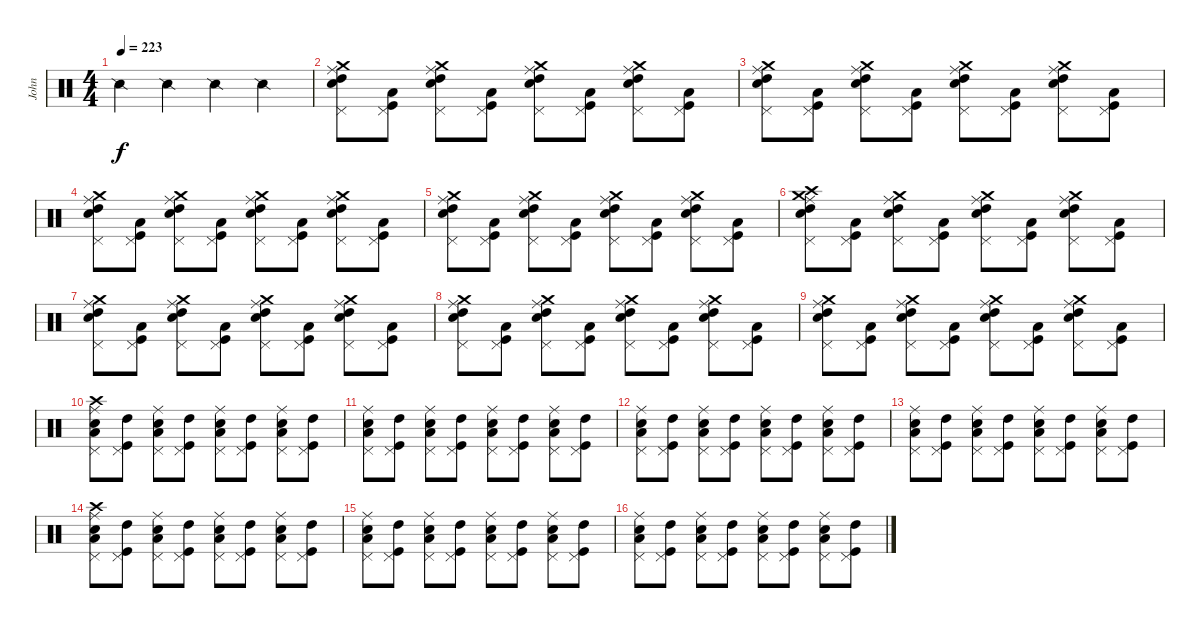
\track ("John" "John") {instrument percussion}
\staff {score}
\articulation defaults
\ts (4 4)
\tempo 223
\clef neutral
\ks c "Snare (side stick) 2".4{dy f} "Snare (side stick) 2".4 "Snare (side stick) 2".4 "Snare (side stick) 2".4
|
("Crash medium (hit)" "Ride (middle)" "Snare (hit) 2" "High Tom (hit)" "Pedal Hi-Hat (hit)").8 ("Kick (hit)" "Low Tom (hit)" "Pedal Hi-Hat (hit)").8 ("Crash medium (hit)" "Ride (middle)" "Snare (hit) 2" "High Tom (hit)" "Pedal Hi-Hat (hit)").8 ("Kick (hit)" "Low Tom (hit)" "Pedal Hi-Hat (hit)").8 ("Crash medium (hit)" "Ride (middle)" "Snare (hit) 2" "High Tom (hit)" "Pedal Hi-Hat (hit)").8 ("Kick (hit)" "Low Tom (hit)" "Pedal Hi-Hat (hit)").8 ("Crash medium (hit)" "Ride (middle)" "Snare (hit) 2" "High Tom (hit)" "Pedal Hi-Hat (hit)").8 ("Kick (hit)" "Low Tom (hit)" "Pedal Hi-Hat (hit)").8 |
("Crash medium (hit)" "Ride (middle)" "Snare (hit) 2" "High Tom (hit)" "Pedal Hi-Hat (hit)").8 ("Kick (hit)" "Low Tom (hit)" "Pedal Hi-Hat (hit)").8 ("Crash medium (hit)" "Ride (middle)" "Snare (hit) 2" "High Tom (hit)" "Pedal Hi-Hat (hit)").8 ("Kick (hit)" "Low Tom (hit)" "Pedal Hi-Hat (hit)").8 ("Crash medium (hit)" "Ride (middle)" "Snare (hit) 2" "High Tom (hit)" "Pedal Hi-Hat (hit)").8 ("Kick (hit)" "Low Tom (hit)" "Pedal Hi-Hat (hit)").8 ("Crash medium (hit)" "Ride (middle)" "Snare (hit) 2" "High Tom (hit)" "Pedal Hi-Hat (hit)").8 ("Kick (hit)" "Low Tom (hit)" "Pedal Hi-Hat (hit)").8 |
("Crash medium (hit)" "Ride (middle)" "Snare (hit) 2" "High Tom (hit)" "Pedal Hi-Hat (hit)").8 ("Kick (hit)" "Low Tom (hit)" "Pedal Hi-Hat (hit)").8 ("Crash medium (hit)" "Ride (middle)" "Snare (hit) 2" "High Tom (hit)" "Pedal Hi-Hat (hit)").8 ("Kick (hit)" "Low Tom (hit)" "Pedal Hi-Hat (hit)").8 ("Crash medium (hit)" "Ride (middle)" "Snare (hit) 2" "High Tom (hit)" "Pedal Hi-Hat (hit)").8 ("Kick (hit)" "Low Tom (hit)" "Pedal Hi-Hat (hit)").8 ("Crash medium (hit)" "Ride (middle)" "Snare (hit) 2" "High Tom (hit)" "Pedal Hi-Hat (hit)").8 ("Kick (hit)" "Low Tom (hit)" "Pedal Hi-Hat (hit)").8 |
("Crash medium (hit)" "Ride (middle)" "Snare (hit) 2" "High Tom (hit)" "Pedal Hi-Hat (hit)").8 ("Kick (hit)" "Low Tom (hit)" "Pedal Hi-Hat (hit)").8 ("Crash medium (hit)" "Ride (middle)" "Snare (hit) 2" "High Tom (hit)" "Pedal Hi-Hat (hit)").8 ("Kick (hit)" "Low Tom (hit)" "Pedal Hi-Hat (hit)").8 ("Crash medium (hit)" "Ride (middle)" "Snare (hit) 2" "High Tom (hit)" "Pedal Hi-Hat (hit)").8 ("Kick (hit)" "Low Tom (hit)" "Pedal Hi-Hat (hit)").8 ("Crash medium (hit)" "Ride (middle)" "Snare (hit) 2" "High Tom (hit)" "Pedal Hi-Hat (hit)").8 ("Kick (hit)" "Low Tom (hit)" "Pedal Hi-Hat (hit)").8 |
("Crash medium (hit)" "Ride (middle)" "Snare (hit) 2" "High Tom (hit)" "Crash high (hit)" "Pedal Hi-Hat (hit)").8 ("Kick (hit)" "Low Tom (hit)" "Pedal Hi-Hat (hit)").8 ("Crash medium (hit)" "Ride (middle)" "Snare (hit) 2" "High Tom (hit)" "Pedal Hi-Hat (hit)").8 ("Kick (hit)" "Low Tom (hit)" "Pedal Hi-Hat (hit)").8 ("Crash medium (hit)" "Ride (middle)" "Snare (hit) 2" "High Tom (hit)" "Pedal Hi-Hat (hit)").8 ("Kick (hit)" "Low Tom (hit)" "Pedal Hi-Hat (hit)").8 ("Crash medium (hit)" "Ride (middle)" "Snare (hit) 2" "High Tom (hit)" "Pedal Hi-Hat (hit)").8 ("Kick (hit)" "Low Tom (hit)" "Pedal Hi-Hat (hit)").8 |
("Crash medium (hit)" "Ride (middle)" "Snare (hit) 2" "High Tom (hit)" "Pedal Hi-Hat (hit)").8 ("Kick (hit)" "Low Tom (hit)" "Pedal Hi-Hat (hit)").8 ("Crash medium (hit)" "Ride (middle)" "Snare (hit) 2" "High Tom (hit)" "Pedal Hi-Hat (hit)").8 ("Kick (hit)" "Low Tom (hit)" "Pedal Hi-Hat (hit)").8 ("Crash medium (hit)" "Ride (middle)" "Snare (hit) 2" "High Tom (hit)" "Pedal Hi-Hat (hit)").8 ("Kick (hit)" "Low Tom (hit)" "Pedal Hi-Hat (hit)").8 ("Crash medium (hit)" "Ride (middle)" "Snare (hit) 2" "High Tom (hit)" "Pedal Hi-Hat (hit)").8 ("Kick (hit)" "Low Tom (hit)" "Pedal Hi-Hat (hit)").8 |
("Crash medium (hit)" "Ride (middle)" "Snare (hit) 2" "High Tom (hit)" "Pedal Hi-Hat (hit)").8 ("Kick (hit)" "Low Tom (hit)" "Pedal Hi-Hat (hit)").8 ("Crash medium (hit)" "Ride (middle)" "Snare (hit) 2" "High Tom (hit)" "Pedal Hi-Hat (hit)").8 ("Kick (hit)" "Low Tom (hit)" "Pedal Hi-Hat (hit)").8 ("Crash medium (hit)" "Ride (middle)" "Snare (hit) 2" "High Tom (hit)" "Pedal Hi-Hat (hit)").8 ("Kick (hit)" "Low Tom (hit)" "Pedal Hi-Hat (hit)").8 ("Crash medium (hit)" "Ride (middle)" "Snare (hit) 2" "High Tom (hit)" "Pedal Hi-Hat (hit)").8 ("Kick (hit)" "Low Tom (hit)" "Pedal Hi-Hat (hit)").8 |
("Crash medium (hit)" "Ride (middle)" "Snare (hit) 2" "High Tom (hit)" "Pedal Hi-Hat (hit)").8 ("Kick (hit)" "Low Tom (hit)" "Pedal Hi-Hat (hit)").8 ("Crash medium (hit)" "Ride (middle)" "Snare (hit) 2" "High Tom (hit)" "Pedal Hi-Hat (hit)").8 ("Kick (hit)" "Low Tom (hit)" "Pedal Hi-Hat (hit)").8 ("Crash medium (hit)" "Ride (middle)" "Snare (hit) 2" "High Tom (hit)" "Pedal Hi-Hat (hit)").8 ("Kick (hit)" "Low Tom (hit)" "Pedal Hi-Hat (hit)").8 ("Crash medium (hit)" "Ride (middle)" "Snare (hit) 2" "High Tom (hit)" "Pedal Hi-Hat (hit)").8 ("Kick (hit)" "Low Tom (hit)" "Pedal Hi-Hat (hit)").8 |
("Crash high (hit)" "Ride (middle)" "Snare (hit) 2" "Low Tom (hit)" "Pedal Hi-Hat (hit)").8 ("Kick (hit)" "High Tom (hit)" "Pedal Hi-Hat (hit)").8 ("Ride (middle)" "Snare (hit) 2" "Low Tom (hit)" "Pedal Hi-Hat (hit)").8 ("Kick (hit)" "High Tom (hit)" "Pedal Hi-Hat (hit)").8 ("Ride (middle)" "Snare (hit) 2" "Low Tom (hit)" "Pedal Hi-Hat (hit)").8 ("Kick (hit)" "High Tom (hit)" "Pedal Hi-Hat (hit)").8 ("Ride (middle)" "Snare (hit) 2" "Low Tom (hit)" "Pedal Hi-Hat (hit)").8 ("Kick (hit)" "High Tom (hit)" "Pedal Hi-Hat (hit)").8 |
("Ride (middle)" "Snare (hit) 2" "Low Tom (hit)" "Pedal Hi-Hat (hit)").8 ("Kick (hit)" "High Tom (hit)" "Pedal Hi-Hat (hit)").8 ("Ride (middle)" "Snare (hit) 2" "Low Tom (hit)" "Pedal Hi-Hat (hit)").8 ("Kick (hit)" "High Tom (hit)" "Pedal Hi-Hat (hit)").8 ("Ride (middle)" "Snare (hit) 2" "Low Tom (hit)" "Pedal Hi-Hat (hit)").8 ("Kick (hit)" "High Tom (hit)" "Pedal Hi-Hat (hit)").8 ("Ride (middle)" "Snare (hit) 2" "Low Tom (hit)" "Pedal Hi-Hat (hit)").8 ("Kick (hit)" "High Tom (hit)" "Pedal Hi-Hat (hit)").8 |
("Ride (middle)" "Snare (hit) 2" "Low Tom (hit)" "Pedal Hi-Hat (hit)").8 ("Kick (hit)" "High Tom (hit)" "Pedal Hi-Hat (hit)").8 ("Ride (middle)" "Snare (hit) 2" "Low Tom (hit)" "Pedal Hi-Hat (hit)").8 ("Kick (hit)" "High Tom (hit)" "Pedal Hi-Hat (hit)").8 ("Ride (middle)" "Snare (hit) 2" "Low Tom (hit)" "Pedal Hi-Hat (hit)").8 ("Kick (hit)" "High Tom (hit)" "Pedal Hi-Hat (hit)").8 ("Ride (middle)" "Snare (hit) 2" "Low Tom (hit)" "Pedal Hi-Hat (hit)").8 ("Kick (hit)" "High Tom (hit)" "Pedal Hi-Hat (hit)").8 |
("Ride (middle)" "Snare (hit) 2" "Low Tom (hit)" "Pedal Hi-Hat (hit)").8 ("Kick (hit)" "High Tom (hit)" "Pedal Hi-Hat (hit)").8 ("Ride (middle)" "Snare (hit) 2" "Low Tom (hit)" "Pedal Hi-Hat (hit)").8 ("Kick (hit)" "High Tom (hit)" "Pedal Hi-Hat (hit)").8 ("Ride (middle)" "Snare (hit) 2" "Low Tom (hit)" "Pedal Hi-Hat (hit)").8 ("Kick (hit)" "High Tom (hit)" "Pedal Hi-Hat (hit)").8 ("Ride (middle)" "Snare (hit) 2" "Low Tom (hit)" "Pedal Hi-Hat (hit)").8 ("Kick (hit)" "High Tom (hit)" "Pedal Hi-Hat (hit)").8 |
("Crash high (hit)" "Ride (middle)" "Snare (hit) 2" "Low Tom (hit)" "Pedal Hi-Hat (hit)").8 ("Kick (hit)" "High Tom (hit)" "Pedal Hi-Hat (hit)").8 ("Ride (middle)" "Snare (hit) 2" "Low Tom (hit)" "Pedal Hi-Hat (hit)").8 ("Kick (hit)" "High Tom (hit)" "Pedal Hi-Hat (hit)").8 ("Ride (middle)" "Snare (hit) 2" "Low Tom (hit)" "Pedal Hi-Hat (hit)").8 ("Kick (hit)" "High Tom (hit)" "Pedal Hi-Hat (hit)").8 ("Ride (middle)" "Snare (hit) 2" "Low Tom (hit)" "Pedal Hi-Hat (hit)").8 ("Kick (hit)" "High Tom (hit)" "Pedal Hi-Hat (hit)").8 |
("Ride (middle)" "Snare (hit) 2" "Low Tom (hit)" "Pedal Hi-Hat (hit)").8 ("Kick (hit)" "High Tom (hit)" "Pedal Hi-Hat (hit)").8 ("Ride (middle)" "Snare (hit) 2" "Low Tom (hit)" "Pedal Hi-Hat (hit)").8 ("Kick (hit)" "High Tom (hit)" "Pedal Hi-Hat (hit)").8 ("Ride (middle)" "Snare (hit) 2" "Low Tom (hit)" "Pedal Hi-Hat (hit)").8 ("Kick (hit)" "High Tom (hit)" "Pedal Hi-Hat (hit)").8 ("Ride (middle)" "Snare (hit) 2" "Low Tom (hit)" "Pedal Hi-Hat (hit)").8 ("Kick (hit)" "High Tom (hit)" "Pedal Hi-Hat (hit)").8 |
("Ride (middle)" "Snare (hit) 2" "Low Tom (hit)" "Pedal Hi-Hat (hit)").8 ("Kick (hit)" "High Tom (hit)" "Pedal Hi-Hat (hit)").8 ("Ride (middle)" "Snare (hit) 2" "Low Tom (hit)" "Pedal Hi-Hat (hit)").8 ("Kick (hit)" "High Tom (hit)" "Pedal Hi-Hat (hit)").8 ("Ride (middle)" "Snare (hit) 2" "Low Tom (hit)" "Pedal Hi-Hat (hit)").8 ("Kick (hit)" "High Tom (hit)" "Pedal Hi-Hat (hit)").8 ("Ride (middle)" "Snare (hit) 2" "Low Tom (hit)" "Pedal Hi-Hat (hit)").8 ("Kick (hit)" "High Tom (hit)" "Pedal Hi-Hat (hit)").8
